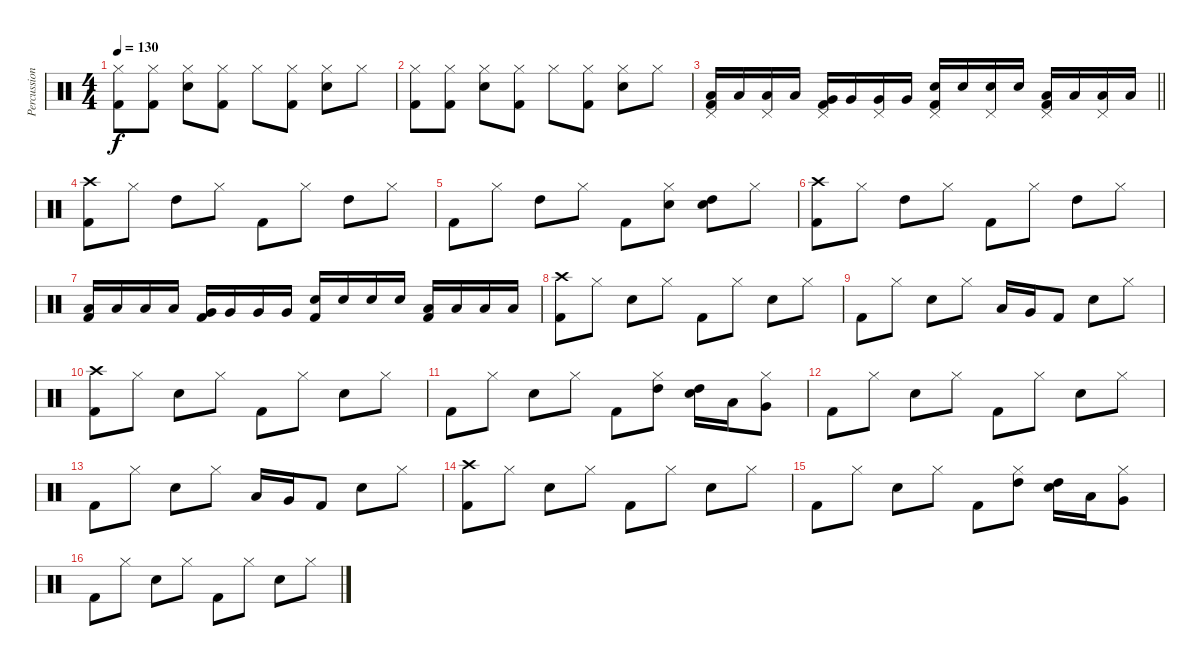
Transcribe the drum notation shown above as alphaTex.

\track ("Percussion" "Percussion") {instrument percussion}
\staff {score}
\articulation defaults
\ts (4 4)
\tempo 130
\clef neutral
\ks c
("Hi-Hat (closed)" "Kick (hit) 2").8{dy f} ("Hi-Hat (closed)" "Kick (hit) 2").8 ("Hi-Hat (closed)" "Electric Snare (hit)").8 ("Hi-Hat (closed)" "Kick (hit) 2").8 "Hi-Hat (closed)".8 ("Hi-Hat (closed)" "Kick (hit) 2").8 ("Hi-Hat (closed)" "Electric Snare (hit)").8 "Hi-Hat (closed)".8 |
("Hi-Hat (closed)" "Kick (hit) 2").8 ("Hi-Hat (closed)" "Kick (hit) 2").8 ("Hi-Hat (closed)" "Electric Snare (hit)").8 ("Hi-Hat (closed)" "Kick (hit) 2").8 "Hi-Hat (closed)".8 ("Hi-Hat (closed)" "Kick (hit) 2").8 ("Hi-Hat (closed)" "Electric Snare (hit)").8 "Hi-Hat (closed)".8 |
\barLineRight lightlight
("Pedal Hi-Hat (hit)" "Low Tom (hit)" "Kick (hit) 2").16 "Low Tom (hit)".16 ("Pedal Hi-Hat (hit)" "Low Tom (hit)").16 "Low Tom (hit)".16 ("Pedal Hi-Hat (hit)" "Very Low Tom (hit)" "Kick (hit) 2").16 "Very Low Tom (hit)".16 ("Pedal Hi-Hat (hit)" "Very Low Tom (hit)").16 "Very Low Tom (hit)".16 ("Pedal Hi-Hat (hit)" "Electric Snare (hit)" "Kick (hit) 2").16 "Electric Snare (hit)".16 ("Pedal Hi-Hat (hit)" "Electric Snare (hit)").16 "Electric Snare (hit)".16 ("Pedal Hi-Hat (hit)" "Low Floor Tom (hit)" "Kick (hit) 2").16 "Low Floor Tom (hit)".16 ("Pedal Hi-Hat (hit)" "Low Floor Tom (hit)").16 "Low Floor Tom (hit)".16 |
("Crash high (hit)" "Kick (hit) 2").8 "Hi-Hat (closed)".8 "High Tom (hit)".8 "Hi-Hat (closed)".8 "Kick (hit) 2".8 "Hi-Hat (closed)".8 "High Tom (hit)".8 "Hi-Hat (closed)".8 |
"Kick (hit) 2".8 "Hi-Hat (closed)".8 "High Tom (hit)".8 "Hi-Hat (closed)".8 "Kick (hit) 2".8 ("Hi-Hat (closed)" "Electric Snare (hit)").8 ("Electric Snare (hit)" "High Tom (hit)").8 "Hi-Hat (closed)".8 |
("Crash high (hit)" "Kick (hit) 2").8 "Hi-Hat (closed)".8 "High Tom (hit)".8 "Hi-Hat (closed)".8 "Kick (hit) 2".8 "Hi-Hat (closed)".8 "High Tom (hit)".8 "Hi-Hat (closed)".8 |
("Low Tom (hit)" "Kick (hit) 2").16 "Low Tom (hit)".16 "Low Tom (hit)".16 "Low Tom (hit)".16 ("Very Low Tom (hit)" "Kick (hit) 2").16 "Very Low Tom (hit)".16 "Very Low Tom (hit)".16 "Very Low Tom (hit)".16 ("Electric Snare (hit)" "Kick (hit) 2").16 "Electric Snare (hit)".16 "Electric Snare (hit)".16 "Electric Snare (hit)".16 ("Low Floor Tom (hit)" "Kick (hit) 2").16 "Low Floor Tom (hit)".16 "Low Floor Tom (hit)".16 "Low Floor Tom (hit)".16 |
("Crash high (hit)" "Kick (hit) 2").8 "Hi-Hat (closed)".8 "Electric Snare (hit)".8 "Hi-Hat (closed)".8 "Kick (hit) 2".8 "Hi-Hat (closed)".8 "Electric Snare (hit)".8 "Hi-Hat (closed)".8 |
"Kick (hit) 2".8 "Hi-Hat (closed)".8 "Electric Snare (hit)".8 "Hi-Hat (closed)".8 "Low Tom (hit)".16 "Very Low Tom (hit)".16 "Kick (hit) 2".8 "Electric Snare (hit)".8 "Hi-Hat (closed)".8 |
("Crash high (hit)" "Kick (hit) 2").8 "Hi-Hat (closed)".8 "Electric Snare (hit)".8 "Hi-Hat (closed)".8 "Kick (hit) 2".8 "Hi-Hat (closed)".8 "Electric Snare (hit)".8 "Hi-Hat (closed)".8 |
"Kick (hit) 2".8 "Hi-Hat (closed)".8 "Electric Snare (hit)".8 "Hi-Hat (closed)".8 "Kick (hit) 2".8 ("Hi-Hat (closed)" "High Tom (hit)").8 ("Electric Snare (hit)" "High Tom (hit)").16 "Low Tom (hit)".16 ("Hi-Hat (closed)" "Very Low Tom (hit)").8 |
"Kick (hit) 2".8 "Hi-Hat (closed)".8 "Electric Snare (hit)".8 "Hi-Hat (closed)".8 "Kick (hit) 2".8 "Hi-Hat (closed)".8 "Electric Snare (hit)".8 "Hi-Hat (closed)".8 |
"Kick (hit) 2".8 "Hi-Hat (closed)".8 "Electric Snare (hit)".8 "Hi-Hat (closed)".8 "Low Tom (hit)".16 "Very Low Tom (hit)".16 "Kick (hit) 2".8 "Electric Snare (hit)".8 "Hi-Hat (closed)".8 |
("Crash high (hit)" "Kick (hit) 2").8 "Hi-Hat (closed)".8 "Electric Snare (hit)".8 "Hi-Hat (closed)".8 "Kick (hit) 2".8 "Hi-Hat (closed)".8 "Electric Snare (hit)".8 "Hi-Hat (closed)".8 |
"Kick (hit) 2".8 "Hi-Hat (closed)".8 "Electric Snare (hit)".8 "Hi-Hat (closed)".8 "Kick (hit) 2".8 ("Hi-Hat (closed)" "High Tom (hit)").8 ("Electric Snare (hit)" "High Tom (hit)").16 "Low Tom (hit)".16 ("Hi-Hat (closed)" "Very Low Tom (hit)").8 |
"Kick (hit) 2".8 "Hi-Hat (closed)".8 "Electric Snare (hit)".8 "Hi-Hat (closed)".8 "Kick (hit) 2".8 "Hi-Hat (closed)".8 "Electric Snare (hit)".8 "Hi-Hat (closed)".8
